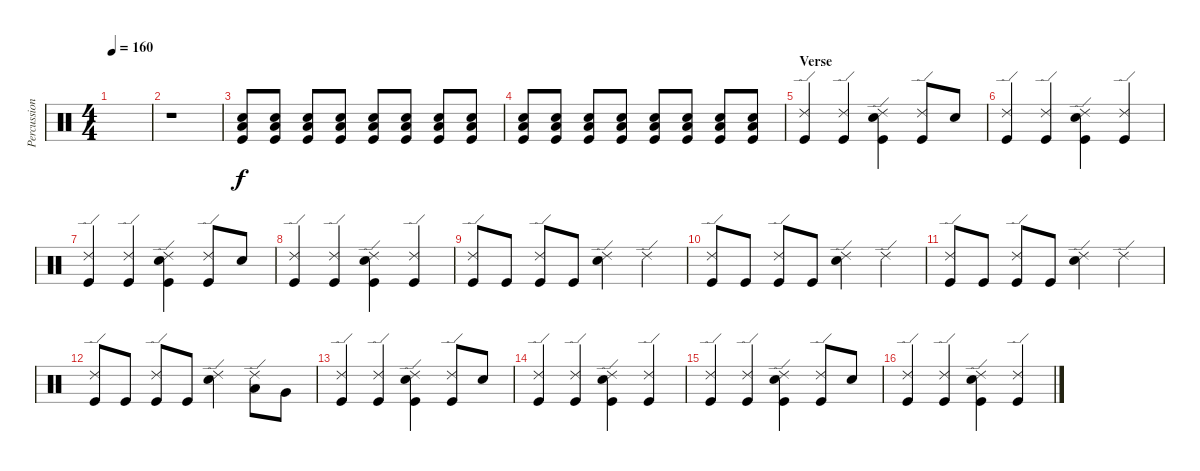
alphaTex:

\track ("Percussion" "Percussion") {instrument percussion}
\staff {score}
\articulation defaults
\ts (4 4)
\tempo 160
\clef neutral
\ks c
|
r.1{volume 0} |
("Snare (hit) 2" "Low Floor Tom (hit)" "Kick (hit)").8{volume 13} ("Snare (hit) 2" "Low Floor Tom (hit)" "Kick (hit)").8 ("Snare (hit) 2" "Low Floor Tom (hit)" "Kick (hit)").8 ("Snare (hit) 2" "Low Floor Tom (hit)" "Kick (hit)").8 ("Snare (hit) 2" "Low Floor Tom (hit)" "Kick (hit)").8 ("Snare (hit) 2" "Low Floor Tom (hit)" "Kick (hit)").8 ("Snare (hit) 2" "Low Floor Tom (hit)" "Kick (hit)").8 ("Snare (hit) 2" "Low Floor Tom (hit)" "Kick (hit)").8 |
("Snare (hit) 2" "Low Floor Tom (hit)" "Kick (hit)").8 ("Snare (hit) 2" "Low Floor Tom (hit)" "Kick (hit)").8 ("Snare (hit) 2" "Low Floor Tom (hit)" "Kick (hit)").8 ("Snare (hit) 2" "Low Floor Tom (hit)" "Kick (hit)").8 ("Snare (hit) 2" "Low Floor Tom (hit)" "Kick (hit)").8 ("Snare (hit) 2" "Low Floor Tom (hit)" "Kick (hit)").8 ("Snare (hit) 2" "Low Floor Tom (hit)" "Kick (hit)").8 ("Snare (hit) 2" "Low Floor Tom (hit)" "Kick (hit)").8 |
\section ("" "Verse")
("Ride (edge) 2" "Kick (hit)").4 ("Ride (edge) 2" "Kick (hit)").4 ("Ride (edge) 2" "Snare (hit) 2" "Kick (hit)").4 ("Ride (edge) 2" "Kick (hit)").8 "Snare (hit) 2".8 |
("Ride (edge) 2" "Kick (hit)").4 ("Ride (edge) 2" "Kick (hit)").4 ("Ride (edge) 2" "Snare (hit) 2" "Kick (hit)").4 ("Ride (edge) 2" "Kick (hit)").4 |
("Ride (edge) 2" "Kick (hit)").4 ("Ride (edge) 2" "Kick (hit)").4 ("Ride (edge) 2" "Snare (hit) 2" "Kick (hit)").4 ("Ride (edge) 2" "Kick (hit)").8 "Snare (hit) 2".8 |
("Ride (edge) 2" "Kick (hit)").4 ("Ride (edge) 2" "Kick (hit)").4 ("Ride (edge) 2" "Snare (hit) 2" "Kick (hit)").4 ("Ride (edge) 2" "Kick (hit)").4 |
("Ride (edge) 2" "Kick (hit)").8 "Kick (hit)".8 ("Ride (edge) 2" "Kick (hit)").8 "Kick (hit)".8 ("Ride (edge) 2" "Snare (hit) 2").4 "Ride (edge) 2".4 |
("Ride (edge) 2" "Kick (hit)").8 "Kick (hit)".8 ("Ride (edge) 2" "Kick (hit)").8 "Kick (hit)".8 ("Ride (edge) 2" "Snare (hit) 2").4 "Ride (edge) 2".4 |
("Ride (edge) 2" "Kick (hit)").8 "Kick (hit)".8 ("Ride (edge) 2" "Kick (hit)").8 "Kick (hit)".8 ("Ride (edge) 2" "Snare (hit) 2").4 "Ride (edge) 2".4 |
("Ride (edge) 2" "Kick (hit)").8 "Kick (hit)".8 ("Ride (edge) 2" "Kick (hit)").8 "Kick (hit)".8 ("Ride (edge) 2" "Snare (hit) 2").4 ("Ride (edge) 2" "Low Tom (hit)").8 "Very Low Tom (hit)".8 |
("Ride (edge) 2" "Kick (hit)").4 ("Ride (edge) 2" "Kick (hit)").4 ("Ride (edge) 2" "Snare (hit) 2" "Kick (hit)").4 ("Ride (edge) 2" "Kick (hit)").8 "Snare (hit) 2".8 |
("Ride (edge) 2" "Kick (hit)").4 ("Ride (edge) 2" "Kick (hit)").4 ("Ride (edge) 2" "Snare (hit) 2" "Kick (hit)").4 ("Ride (edge) 2" "Kick (hit)").4 |
("Ride (edge) 2" "Kick (hit)").4 ("Ride (edge) 2" "Kick (hit)").4 ("Ride (edge) 2" "Snare (hit) 2" "Kick (hit)").4 ("Ride (edge) 2" "Kick (hit)").8 "Snare (hit) 2".8 |
("Ride (edge) 2" "Kick (hit)").4 ("Ride (edge) 2" "Kick (hit)").4 ("Ride (edge) 2" "Snare (hit) 2" "Kick (hit)").4 ("Ride (edge) 2" "Kick (hit)").4
